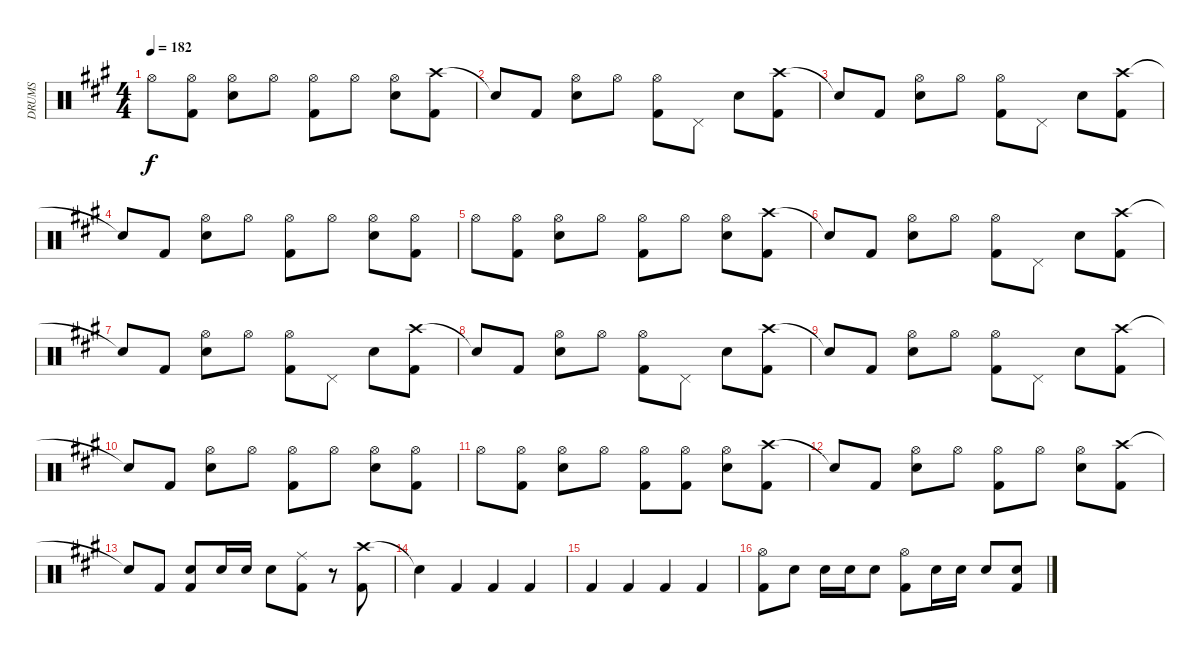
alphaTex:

\track ("DRUMS" "DRUMS") {instrument percussion}
\staff {score}
\articulation defaults
\ts (4 4)
\tempo 182
\clef neutral
\ks a "Hi-Hat (open)".8{dy f}
("Hi-Hat (open)" "Kick (hit) 2").8 ("Hi-Hat (open)" "Snare (hit) 2").8 "Hi-Hat (open)".8 ("Hi-Hat (open)" "Kick (hit) 2").8 "Hi-Hat (open)".8 ("Hi-Hat (open)" "Snare (hit) 2").8 ("Crash high (hit)" "Kick (hit) 2").8 |
"Snare (hit)"{t}.8 "Kick (hit) 2".8 ("Hi-Hat (open)" "Snare (hit) 2").8 "Hi-Hat (open)".8 ("Hi-Hat (open)" "Kick (hit) 2").8 "Pedal Hi-Hat (hit)".8 "Snare (hit) 2".8 ("Crash high (hit)" "Kick (hit) 2").8 |
"Snare (hit)"{t}.8 "Kick (hit) 2".8 ("Hi-Hat (open)" "Snare (hit) 2").8 "Hi-Hat (open)".8 ("Hi-Hat (open)" "Kick (hit) 2").8 "Pedal Hi-Hat (hit)".8 "Snare (hit) 2".8 ("Crash high (hit)" "Kick (hit) 2").8 |
"Snare (hit)"{t}.8 "Kick (hit) 2".8 ("Hi-Hat (open)" "Snare (hit) 2").8 "Hi-Hat (open)".8 ("Hi-Hat (open)" "Kick (hit) 2").8 "Hi-Hat (open)".8 ("Hi-Hat (open)" "Snare (hit) 2").8 ("Hi-Hat (open)" "Kick (hit) 2").8 |
"Hi-Hat (open)".8 ("Hi-Hat (open)" "Kick (hit) 2").8 ("Hi-Hat (open)" "Snare (hit) 2").8 "Hi-Hat (open)".8 ("Hi-Hat (open)" "Kick (hit) 2").8 "Hi-Hat (open)".8 ("Hi-Hat (open)" "Snare (hit) 2").8 ("Crash high (hit)" "Kick (hit) 2").8 |
"Snare (hit)"{t}.8 "Kick (hit) 2".8 ("Hi-Hat (open)" "Snare (hit) 2").8 "Hi-Hat (open)".8 ("Hi-Hat (open)" "Kick (hit) 2").8 "Pedal Hi-Hat (hit)".8 "Snare (hit) 2".8 ("Crash high (hit)" "Kick (hit) 2").8 |
"Snare (hit)"{t}.8 "Kick (hit) 2".8 ("Hi-Hat (open)" "Snare (hit) 2").8 "Hi-Hat (open)".8 ("Hi-Hat (open)" "Kick (hit) 2").8 "Pedal Hi-Hat (hit)".8 "Snare (hit) 2".8 ("Crash high (hit)" "Kick (hit) 2").8 |
"Snare (hit)"{t}.8 "Kick (hit) 2".8 ("Hi-Hat (open)" "Snare (hit) 2").8 "Hi-Hat (open)".8 ("Hi-Hat (open)" "Kick (hit) 2").8 "Pedal Hi-Hat (hit)".8 "Snare (hit) 2".8 ("Crash high (hit)" "Kick (hit) 2").8 |
"Snare (hit)"{t}.8 "Kick (hit) 2".8 ("Hi-Hat (open)" "Snare (hit) 2").8 "Hi-Hat (open)".8 ("Hi-Hat (open)" "Kick (hit) 2").8 "Pedal Hi-Hat (hit)".8 "Snare (hit) 2".8 ("Crash high (hit)" "Kick (hit) 2").8 |
"Snare (hit)"{t}.8 "Kick (hit) 2".8 ("Hi-Hat (open)" "Snare (hit) 2").8 "Hi-Hat (open)".8 ("Hi-Hat (open)" "Kick (hit) 2").8 "Hi-Hat (open)".8 ("Hi-Hat (open)" "Snare (hit) 2").8 ("Hi-Hat (open)" "Kick (hit) 2").8 |
"Hi-Hat (open)".8 ("Hi-Hat (open)" "Kick (hit) 2").8 ("Hi-Hat (open)" "Snare (hit) 2").8 "Hi-Hat (open)".8 ("Hi-Hat (open)" "Kick (hit) 2").8 ("Hi-Hat (open)" "Kick (hit) 2").8 ("Hi-Hat (open)" "Snare (hit) 2").8 ("Crash high (hit)" "Kick (hit) 2").8 |
"Snare (hit)"{t}.8 "Kick (hit) 2".8 ("Hi-Hat (open)" "Snare (hit) 2").8 "Hi-Hat (open)".8 ("Hi-Hat (open)" "Kick (hit) 2").8 "Hi-Hat (open)".8 ("Hi-Hat (open)" "Snare (hit) 2").8 ("Crash high (hit)" "Kick (hit) 2").8 |
"Snare (hit)"{t}.8 "Kick (hit) 2".8 ("Kick (hit) 2" "Snare (hit) 2").8 "Snare (hit) 2".16 "Snare (hit) 2".16 "Snare (hit) 2".8 ("Ride (middle)" "Kick (hit) 2").8 r.8 ("Crash high (hit)" "Kick (hit) 2").8 |
"Snare (hit)"{t}.4 "Kick (hit) 2".4 "Kick (hit) 2".4 "Kick (hit) 2".4 |
"Kick (hit) 2".4 "Kick (hit) 2".4 "Kick (hit) 2".4 "Kick (hit) 2".4 |
("Hi-Hat (open)" "Kick (hit) 2").8 "Snare (hit) 2".8 "Snare (hit) 2".16 "Snare (hit) 2".16 "Snare (hit) 2".8 ("Hi-Hat (open)" "Kick (hit) 2").8 "Snare (hit) 2".16 "Snare (hit) 2".16 "Snare (hit) 2".8 ("Snare (hit) 2" "Kick (hit) 2").8
